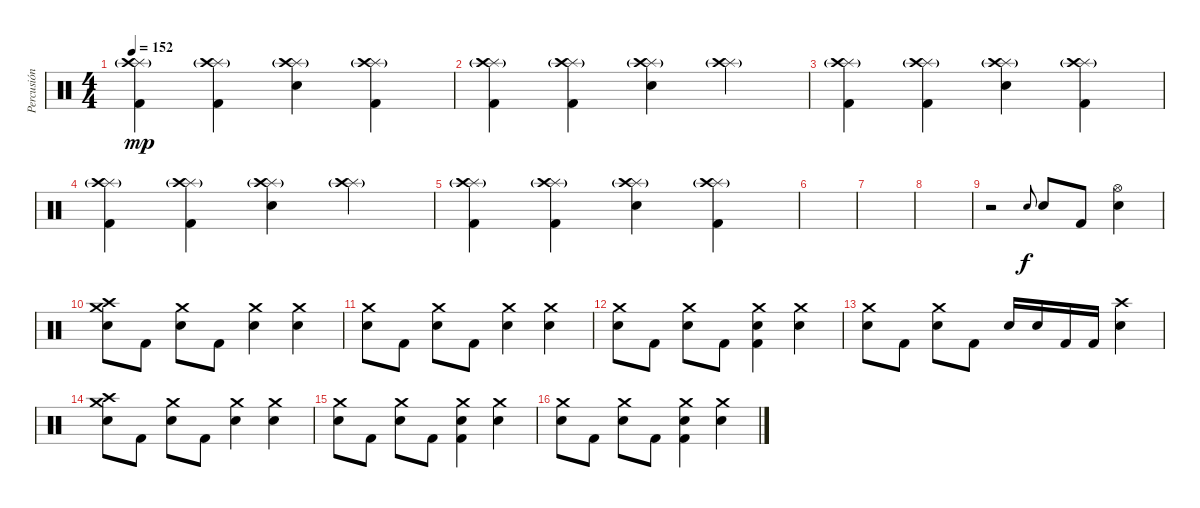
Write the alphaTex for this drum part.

\track ("Percusión" "Percusión") {instrument percussion}
\staff {score}
\articulation defaults
\ts (4 4)
\tempo 152
\clef neutral
\ks c
("Splash (hit)" "Crash high (hit)"{g} "Kick (hit) 2").4{dy mp} ("Splash (hit)" "Crash high (hit)"{g} "Kick (hit) 2").4 ("Splash (hit)" "Crash high (hit)"{g} "Snare (hit) 2").4 ("Splash (hit)" "Crash high (hit)"{g} "Kick (hit) 2").4 |
("Splash (hit)" "Crash high (hit)"{g} "Kick (hit) 2").4 ("Splash (hit)" "Crash high (hit)"{g} "Kick (hit) 2").4 ("Splash (hit)" "Crash high (hit)"{g} "Snare (hit) 2").4 ("Splash (hit)" "Crash high (hit)"{g}).4 |
("Splash (hit)" "Crash high (hit)"{g} "Kick (hit) 2").4 ("Splash (hit)" "Crash high (hit)"{g} "Kick (hit) 2").4 ("Splash (hit)" "Crash high (hit)"{g} "Snare (hit) 2").4 ("Splash (hit)" "Crash high (hit)"{g} "Kick (hit) 2").4 |
("Splash (hit)" "Crash high (hit)"{g} "Kick (hit) 2").4 ("Splash (hit)" "Crash high (hit)"{g} "Kick (hit) 2").4 ("Splash (hit)" "Crash high (hit)"{g} "Snare (hit) 2").4 ("Splash (hit)" "Crash high (hit)"{g}).4 |
("Splash (hit)" "Crash high (hit)"{g} "Kick (hit) 2").4 ("Splash (hit)" "Crash high (hit)"{g} "Kick (hit) 2").4 ("Splash (hit)" "Crash high (hit)"{g} "Snare (hit) 2").4 ("Splash (hit)" "Crash high (hit)"{g} "Kick (hit) 2").4 |
|
|
|
r.2 "Snare (hit) 2".8{gr onbeat dy f} "Snare (hit) 2".8 "Kick (hit) 2".8 ("Hi-Hat (open)" "Snare (hit) 2").4 |
("Crash high (hit)" "Crash medium (hit)" "Snare (hit) 2").8 "Kick (hit) 2".8 ("Crash medium (hit)" "Snare (hit) 2").8 "Kick (hit) 2".8 ("Crash medium (hit)" "Snare (hit) 2").4 ("Crash medium (hit)" "Snare (hit) 2").4 |
("Crash medium (hit)" "Snare (hit) 2").8 "Kick (hit) 2".8 ("Crash medium (hit)" "Snare (hit) 2").8 "Kick (hit) 2".8 ("Crash medium (hit)" "Snare (hit) 2").4 ("Crash medium (hit)" "Snare (hit) 2").4 |
("Crash medium (hit)" "Snare (hit) 2").8 "Kick (hit) 2".8 ("Crash medium (hit)" "Snare (hit) 2").8 "Kick (hit) 2".8 ("Crash medium (hit)" "Snare (hit) 2" "Kick (hit) 2").4 ("Crash medium (hit)" "Snare (hit) 2").4 |
("Crash medium (hit)" "Snare (hit) 2").8 "Kick (hit) 2".8 ("Crash medium (hit)" "Snare (hit) 2").8 "Kick (hit) 2".8 "Snare (hit) 2".16 "Snare (hit) 2".16 "Kick (hit) 2".16 "Kick (hit) 2".16 ("Crash high (hit)" "Snare (hit) 2").4 |
("Crash high (hit)" "Crash medium (hit)" "Snare (hit) 2").8 "Kick (hit) 2".8 ("Crash medium (hit)" "Snare (hit) 2").8 "Kick (hit) 2".8 ("Crash medium (hit)" "Snare (hit) 2").4 ("Crash medium (hit)" "Snare (hit) 2").4 |
("Crash medium (hit)" "Snare (hit) 2").8 "Kick (hit) 2".8 ("Crash medium (hit)" "Snare (hit) 2").8 "Kick (hit) 2".8 ("Crash medium (hit)" "Snare (hit) 2" "Kick (hit) 2").4 ("Crash medium (hit)" "Snare (hit) 2").4 |
("Crash medium (hit)" "Snare (hit) 2").8 "Kick (hit) 2".8 ("Crash medium (hit)" "Snare (hit) 2").8 "Kick (hit) 2".8 ("Crash medium (hit)" "Snare (hit) 2" "Kick (hit) 2").4 ("Crash medium (hit)" "Snare (hit) 2").4
